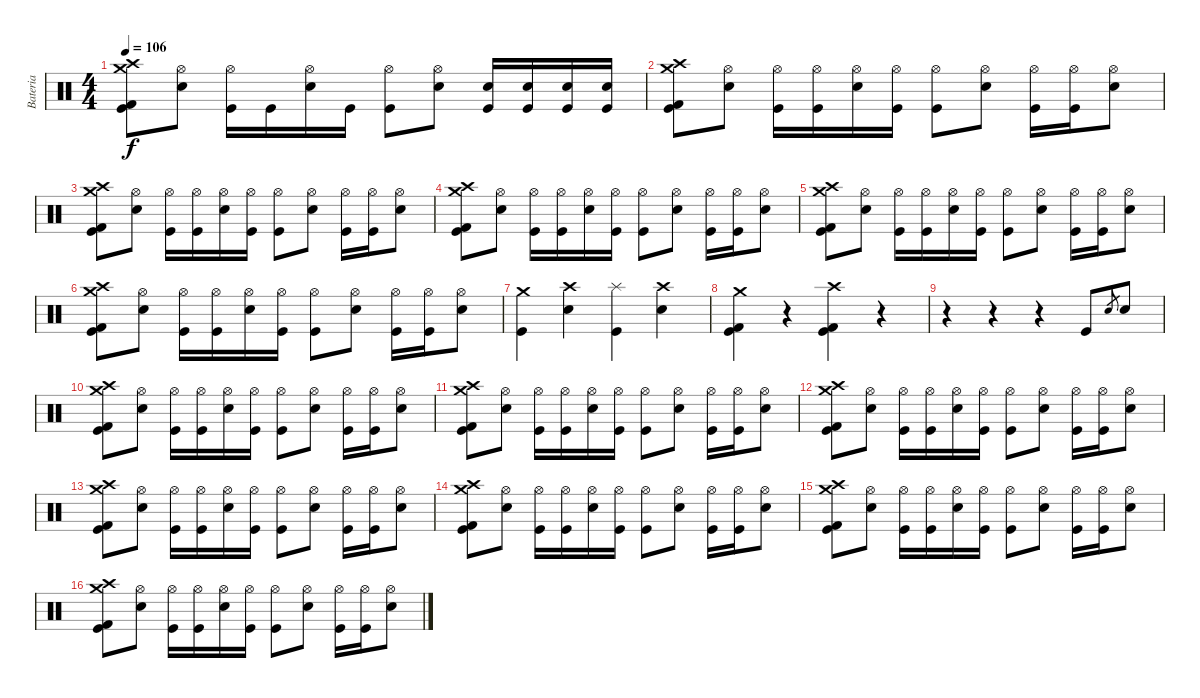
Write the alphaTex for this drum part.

\track ("Bateria" "Bateria") {instrument percussion}
\staff {score}
\articulation defaults
\ts (4 4)
\tempo 106
\clef neutral
\ks c
("Crash medium (hit)" "Crash high (hit)" "Kick (hit) 2" "Kick (hit)").8{dy f} ("Hi-Hat (open)" "Electric Snare (hit)").8 ("Hi-Hat (open)" "Kick (hit)").16 "Kick (hit)".16 ("Hi-Hat (open)" "Electric Snare (hit)").16 "Kick (hit)".16 ("Hi-Hat (open)" "Kick (hit)").8 ("Hi-Hat (open)" "Electric Snare (hit)").8 ("Electric Snare (hit)" "Kick (hit)").16 ("Electric Snare (hit)" "Kick (hit)").16 ("Electric Snare (hit)" "Kick (hit)").16 ("Electric Snare (hit)" "Kick (hit)").16 |
("Crash medium (hit)" "Crash high (hit)" "Kick (hit) 2" "Kick (hit)").8 ("Hi-Hat (open)" "Electric Snare (hit)").8 ("Hi-Hat (open)" "Kick (hit)").16 ("Hi-Hat (open)" "Kick (hit)").16 ("Hi-Hat (open)" "Electric Snare (hit)").16 ("Hi-Hat (open)" "Kick (hit)").16 ("Hi-Hat (open)" "Kick (hit)").8 ("Hi-Hat (open)" "Electric Snare (hit)").8 ("Hi-Hat (open)" "Kick (hit)").16 ("Hi-Hat (open)" "Kick (hit)").16 ("Hi-Hat (open)" "Electric Snare (hit)").8 |
("Crash medium (hit)" "Crash high (hit)" "Kick (hit) 2" "Kick (hit)").8 ("Hi-Hat (open)" "Electric Snare (hit)").8 ("Hi-Hat (open)" "Kick (hit)").16 ("Hi-Hat (open)" "Kick (hit)").16 ("Hi-Hat (open)" "Electric Snare (hit)").16 ("Hi-Hat (open)" "Kick (hit)").16 ("Hi-Hat (open)" "Kick (hit)").8 ("Hi-Hat (open)" "Electric Snare (hit)").8 ("Hi-Hat (open)" "Kick (hit)").16 ("Hi-Hat (open)" "Kick (hit)").16 ("Hi-Hat (open)" "Electric Snare (hit)").8 |
("Crash medium (hit)" "Crash high (hit)" "Kick (hit) 2" "Kick (hit)").8 ("Hi-Hat (open)" "Electric Snare (hit)").8 ("Hi-Hat (open)" "Kick (hit)").16 ("Hi-Hat (open)" "Kick (hit)").16 ("Hi-Hat (open)" "Electric Snare (hit)").16 ("Hi-Hat (open)" "Kick (hit)").16 ("Hi-Hat (open)" "Kick (hit)").8 ("Hi-Hat (open)" "Electric Snare (hit)").8 ("Hi-Hat (open)" "Kick (hit)").16 ("Hi-Hat (open)" "Kick (hit)").16 ("Hi-Hat (open)" "Electric Snare (hit)").8 |
("Crash medium (hit)" "Crash high (hit)" "Kick (hit) 2" "Kick (hit)").8 ("Hi-Hat (open)" "Electric Snare (hit)").8 ("Hi-Hat (open)" "Kick (hit)").16 ("Hi-Hat (open)" "Kick (hit)").16 ("Hi-Hat (open)" "Electric Snare (hit)").16 ("Hi-Hat (open)" "Kick (hit)").16 ("Hi-Hat (open)" "Kick (hit)").8 ("Hi-Hat (open)" "Electric Snare (hit)").8 ("Hi-Hat (open)" "Kick (hit)").16 ("Hi-Hat (open)" "Kick (hit)").16 ("Hi-Hat (open)" "Electric Snare (hit)").8 |
("Crash medium (hit)" "Crash high (hit)" "Kick (hit) 2" "Kick (hit)").8 ("Hi-Hat (open)" "Electric Snare (hit)").8 ("Hi-Hat (open)" "Kick (hit)").16 ("Hi-Hat (open)" "Kick (hit)").16 ("Hi-Hat (open)" "Electric Snare (hit)").16 ("Hi-Hat (open)" "Kick (hit)").16 ("Hi-Hat (open)" "Kick (hit)").8 ("Hi-Hat (open)" "Electric Snare (hit)").8 ("Hi-Hat (open)" "Kick (hit)").16 ("Hi-Hat (open)" "Kick (hit)").16 ("Hi-Hat (open)" "Electric Snare (hit)").8 |
("Crash medium (hit)" "Kick (hit)").4 ("Crash high (hit)" "Electric Snare (hit)").4 ("Splash (hit)" "Kick (hit)").4 ("Crash high (hit)" "Electric Snare (hit)").4 |
("Crash medium (hit)" "Kick (hit) 2" "Kick (hit)").4 r.4 ("Crash high (hit)" "Kick (hit) 2" "Kick (hit)").4 r.4 |
r.4 r.4 r.4 "Kick (hit)".8 "Electric Snare (hit)".8{gr} "Electric Snare (hit)".8 |
("Crash medium (hit)" "Crash high (hit)" "Kick (hit) 2" "Kick (hit)").8 ("Hi-Hat (open)" "Electric Snare (hit)").8 ("Hi-Hat (open)" "Kick (hit)").16 ("Hi-Hat (open)" "Kick (hit)").16 ("Hi-Hat (open)" "Electric Snare (hit)").16 ("Hi-Hat (open)" "Kick (hit)").16 ("Hi-Hat (open)" "Kick (hit)").8 ("Hi-Hat (open)" "Electric Snare (hit)").8 ("Hi-Hat (open)" "Kick (hit)").16 ("Hi-Hat (open)" "Kick (hit)").16 ("Hi-Hat (open)" "Electric Snare (hit)").8 |
("Crash medium (hit)" "Crash high (hit)" "Kick (hit) 2" "Kick (hit)").8 ("Hi-Hat (open)" "Electric Snare (hit)").8 ("Hi-Hat (open)" "Kick (hit)").16 ("Hi-Hat (open)" "Kick (hit)").16 ("Hi-Hat (open)" "Electric Snare (hit)").16 ("Hi-Hat (open)" "Kick (hit)").16 ("Hi-Hat (open)" "Kick (hit)").8 ("Hi-Hat (open)" "Electric Snare (hit)").8 ("Hi-Hat (open)" "Kick (hit)").16 ("Hi-Hat (open)" "Kick (hit)").16 ("Hi-Hat (open)" "Electric Snare (hit)").8 |
("Crash medium (hit)" "Crash high (hit)" "Kick (hit) 2" "Kick (hit)").8 ("Hi-Hat (open)" "Electric Snare (hit)").8 ("Hi-Hat (open)" "Kick (hit)").16 ("Hi-Hat (open)" "Kick (hit)").16 ("Hi-Hat (open)" "Electric Snare (hit)").16 ("Hi-Hat (open)" "Kick (hit)").16 ("Hi-Hat (open)" "Kick (hit)").8 ("Hi-Hat (open)" "Electric Snare (hit)").8 ("Hi-Hat (open)" "Kick (hit)").16 ("Hi-Hat (open)" "Kick (hit)").16 ("Hi-Hat (open)" "Electric Snare (hit)").8 |
("Crash medium (hit)" "Crash high (hit)" "Kick (hit) 2" "Kick (hit)").8 ("Hi-Hat (open)" "Electric Snare (hit)").8 ("Hi-Hat (open)" "Kick (hit)").16 ("Hi-Hat (open)" "Kick (hit)").16 ("Hi-Hat (open)" "Electric Snare (hit)").16 ("Hi-Hat (open)" "Kick (hit)").16 ("Hi-Hat (open)" "Kick (hit)").8 ("Hi-Hat (open)" "Electric Snare (hit)").8 ("Hi-Hat (open)" "Kick (hit)").16 ("Hi-Hat (open)" "Kick (hit)").16 ("Hi-Hat (open)" "Electric Snare (hit)").8 |
("Crash medium (hit)" "Crash high (hit)" "Kick (hit) 2" "Kick (hit)").8 ("Hi-Hat (open)" "Electric Snare (hit)").8 ("Hi-Hat (open)" "Kick (hit)").16 ("Hi-Hat (open)" "Kick (hit)").16 ("Hi-Hat (open)" "Electric Snare (hit)").16 ("Hi-Hat (open)" "Kick (hit)").16 ("Hi-Hat (open)" "Kick (hit)").8 ("Hi-Hat (open)" "Electric Snare (hit)").8 ("Hi-Hat (open)" "Kick (hit)").16 ("Hi-Hat (open)" "Kick (hit)").16 ("Hi-Hat (open)" "Electric Snare (hit)").8 |
("Crash medium (hit)" "Crash high (hit)" "Kick (hit) 2" "Kick (hit)").8 ("Hi-Hat (open)" "Electric Snare (hit)").8 ("Hi-Hat (open)" "Kick (hit)").16 ("Hi-Hat (open)" "Kick (hit)").16 ("Hi-Hat (open)" "Electric Snare (hit)").16 ("Hi-Hat (open)" "Kick (hit)").16 ("Hi-Hat (open)" "Kick (hit)").8 ("Hi-Hat (open)" "Electric Snare (hit)").8 ("Hi-Hat (open)" "Kick (hit)").16 ("Hi-Hat (open)" "Kick (hit)").16 ("Hi-Hat (open)" "Electric Snare (hit)").8 |
("Crash medium (hit)" "Crash high (hit)" "Kick (hit) 2" "Kick (hit)").8 ("Hi-Hat (open)" "Electric Snare (hit)").8 ("Hi-Hat (open)" "Kick (hit)").16 ("Hi-Hat (open)" "Kick (hit)").16 ("Hi-Hat (open)" "Electric Snare (hit)").16 ("Hi-Hat (open)" "Kick (hit)").16 ("Hi-Hat (open)" "Kick (hit)").8 ("Hi-Hat (open)" "Electric Snare (hit)").8 ("Hi-Hat (open)" "Kick (hit)").16 ("Hi-Hat (open)" "Kick (hit)").16 ("Hi-Hat (open)" "Electric Snare (hit)").8
